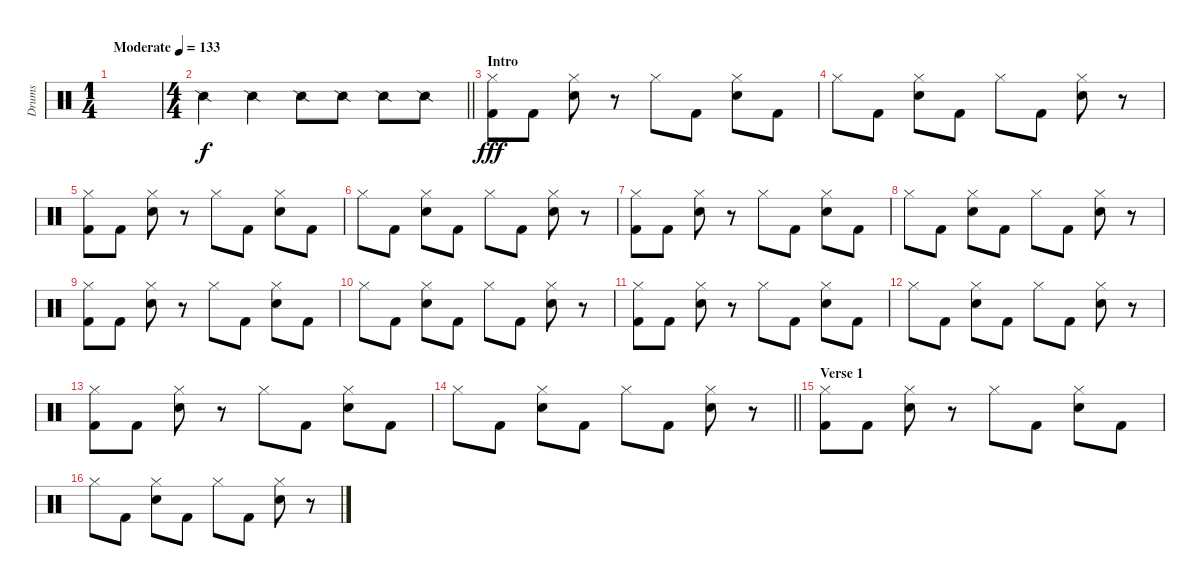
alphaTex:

\track ("Drums" "Drums") {instrument percussion}
\staff {score}
\articulation defaults
\ts (1 4)
\tempo (133 "Moderate")
\clef neutral
\ks c
|
\ts (4 4)
\barLineRight lightlight "Snare (side stick) 2".4 "Snare (side stick) 2".4 "Snare (side stick) 2".8 "Snare (side stick) 2".8 "Snare (side stick) 2".8 "Snare (side stick) 2".8
|
\section ("" "Intro")
("Hi-Hat (closed)" "Kick (hit) 2").8{dy fff} "Kick (hit) 2".8 ("Hi-Hat (closed)" "Snare (hit) 2").8 r.8 "Hi-Hat (closed)".8 "Kick (hit) 2".8 ("Hi-Hat (closed)" "Snare (hit) 2").8 "Kick (hit) 2".8 |
"Hi-Hat (closed)".8 "Kick (hit) 2".8 ("Hi-Hat (closed)" "Snare (hit) 2").8 "Kick (hit) 2".8 "Hi-Hat (closed)".8 "Kick (hit) 2".8 ("Hi-Hat (closed)" "Snare (hit) 2").8 r.8 |
("Hi-Hat (closed)" "Kick (hit) 2").8 "Kick (hit) 2".8 ("Hi-Hat (closed)" "Snare (hit) 2").8 r.8 "Hi-Hat (closed)".8 "Kick (hit) 2".8 ("Hi-Hat (closed)" "Snare (hit) 2").8 "Kick (hit) 2".8 |
"Hi-Hat (closed)".8 "Kick (hit) 2".8 ("Hi-Hat (closed)" "Snare (hit) 2").8 "Kick (hit) 2".8 "Hi-Hat (closed)".8 "Kick (hit) 2".8 ("Hi-Hat (closed)" "Snare (hit) 2").8 r.8 |
("Hi-Hat (closed)" "Kick (hit) 2").8 "Kick (hit) 2".8 ("Hi-Hat (closed)" "Snare (hit) 2").8 r.8 "Hi-Hat (closed)".8 "Kick (hit) 2".8 ("Hi-Hat (closed)" "Snare (hit) 2").8 "Kick (hit) 2".8 |
"Hi-Hat (closed)".8 "Kick (hit) 2".8 ("Hi-Hat (closed)" "Snare (hit) 2").8 "Kick (hit) 2".8 "Hi-Hat (closed)".8 "Kick (hit) 2".8 ("Hi-Hat (closed)" "Snare (hit) 2").8 r.8 |
("Hi-Hat (closed)" "Kick (hit) 2").8 "Kick (hit) 2".8 ("Hi-Hat (closed)" "Snare (hit) 2").8 r.8 "Hi-Hat (closed)".8 "Kick (hit) 2".8 ("Hi-Hat (closed)" "Snare (hit) 2").8 "Kick (hit) 2".8 |
"Hi-Hat (closed)".8 "Kick (hit) 2".8 ("Hi-Hat (closed)" "Snare (hit) 2").8 "Kick (hit) 2".8 "Hi-Hat (closed)".8 "Kick (hit) 2".8 ("Hi-Hat (closed)" "Snare (hit) 2").8 r.8 |
("Hi-Hat (closed)" "Kick (hit) 2").8 "Kick (hit) 2".8 ("Hi-Hat (closed)" "Snare (hit) 2").8 r.8 "Hi-Hat (closed)".8 "Kick (hit) 2".8 ("Hi-Hat (closed)" "Snare (hit) 2").8 "Kick (hit) 2".8 |
"Hi-Hat (closed)".8 "Kick (hit) 2".8 ("Hi-Hat (closed)" "Snare (hit) 2").8 "Kick (hit) 2".8 "Hi-Hat (closed)".8 "Kick (hit) 2".8 ("Hi-Hat (closed)" "Snare (hit) 2").8 r.8 |
("Hi-Hat (closed)" "Kick (hit) 2").8 "Kick (hit) 2".8 ("Hi-Hat (closed)" "Snare (hit) 2").8 r.8 "Hi-Hat (closed)".8 "Kick (hit) 2".8 ("Hi-Hat (closed)" "Snare (hit) 2").8 "Kick (hit) 2".8 |
\barLineRight lightlight "Hi-Hat (closed)".8 "Kick (hit) 2".8
("Hi-Hat (closed)" "Snare (hit) 2").8 "Kick (hit) 2".8 "Hi-Hat (closed)".8 "Kick (hit) 2".8 ("Hi-Hat (closed)" "Snare (hit) 2").8 r.8 |
\section ("" "Verse 1")
("Hi-Hat (closed)" "Kick (hit) 2").8 "Kick (hit) 2".8 ("Hi-Hat (closed)" "Snare (hit) 2").8 r.8 "Hi-Hat (closed)".8 "Kick (hit) 2".8 ("Hi-Hat (closed)" "Snare (hit) 2").8 "Kick (hit) 2".8 |
"Hi-Hat (closed)".8 "Kick (hit) 2".8 ("Hi-Hat (closed)" "Snare (hit) 2").8 "Kick (hit) 2".8 "Hi-Hat (closed)".8 "Kick (hit) 2".8 ("Hi-Hat (closed)" "Snare (hit) 2").8 r.8
